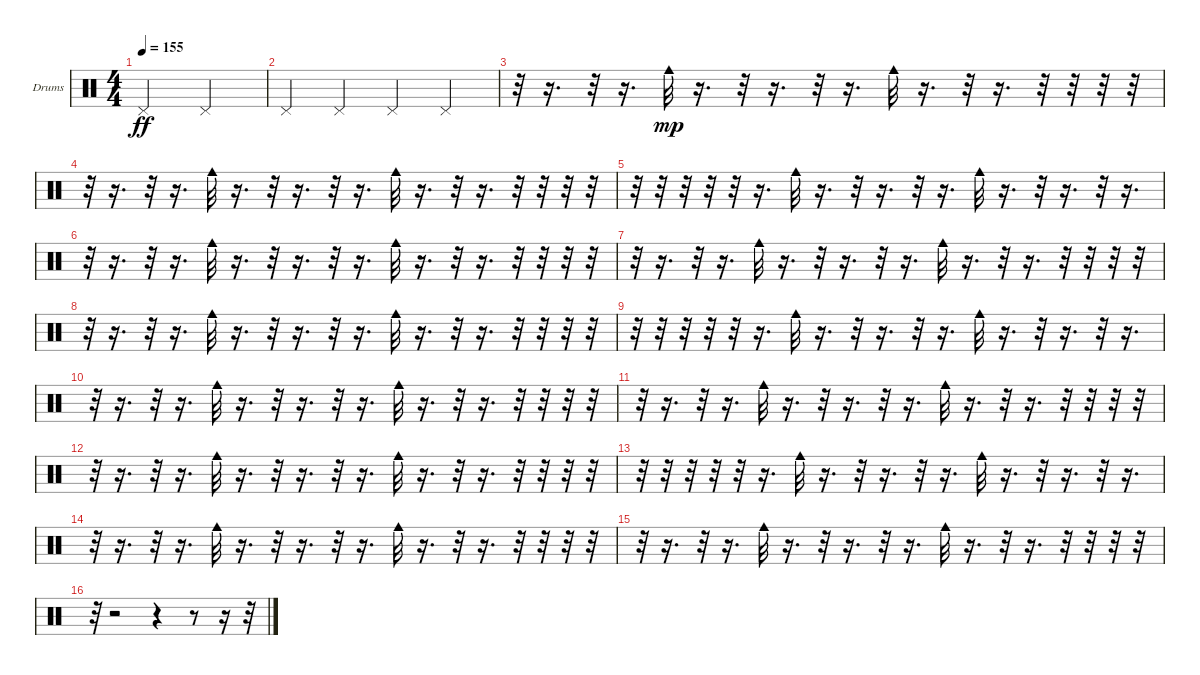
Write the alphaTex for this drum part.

\bracketExtendMode groupsimilarinstruments
\firstSystemTrackNameOrientation horizontal
\otherSystemsTrackNameOrientation horizontal
\track ("Е. Кулаков" "Drums") {instrument percussion}
\staff {score}
\articulation defaults
\ts (4 4)
\tempo 155
\clef neutral
\ks c "Pedal Hi-Hat (hit)".2{dy ff} "Pedal Hi-Hat (hit)".2
|
"Pedal Hi-Hat (hit)".4 "Pedal Hi-Hat (hit)".4 "Pedal Hi-Hat (hit)".4 "Pedal Hi-Hat (hit)".4 |
r.32 r.16{d} r.32 r.16{d} "Cowbell medium (hit)".32{dy mp} r.16{d} r.32 r.16{d} r.32 r.16{d} "Cowbell medium (hit)".32 r.16{d} r.32 r.16{d} r.32 r.32 r.32 r.32 |
r.32 r.16{d} r.32 r.16{d} "Cowbell medium (hit)".32 r.16{d} r.32 r.16{d} r.32 r.16{d} "Cowbell medium (hit)".32 r.16{d} r.32 r.16{d} r.32 r.32 r.32 r.32 |
r.32 r.32 r.32 r.32 r.32 r.16{d} "Cowbell medium (hit)".32 r.16{d} r.32 r.16{d} r.32 r.16{d} "Cowbell medium (hit)".32 r.16{d} r.32 r.16{d} r.32 r.16{d} |
r.32 r.16{d} r.32 r.16{d} "Cowbell medium (hit)".32 r.16{d} r.32 r.16{d} r.32 r.16{d} "Cowbell medium (hit)".32 r.16{d} r.32 r.16{d} r.32 r.32 r.32 r.32 |
r.32 r.16{d} r.32 r.16{d} "Cowbell medium (hit)".32 r.16{d} r.32 r.16{d} r.32 r.16{d} "Cowbell medium (hit)".32 r.16{d} r.32 r.16{d} r.32 r.32 r.32 r.32 |
r.32 r.16{d} r.32 r.16{d} "Cowbell medium (hit)".32 r.16{d} r.32 r.16{d} r.32 r.16{d} "Cowbell medium (hit)".32 r.16{d} r.32 r.16{d} r.32 r.32 r.32 r.32 |
r.32 r.32 r.32 r.32 r.32 r.16{d} "Cowbell medium (hit)".32 r.16{d} r.32 r.16{d} r.32 r.16{d} "Cowbell medium (hit)".32 r.16{d} r.32 r.16{d} r.32 r.16{d} |
r.32 r.16{d} r.32 r.16{d} "Cowbell medium (hit)".32 r.16{d} r.32 r.16{d} r.32 r.16{d} "Cowbell medium (hit)".32 r.16{d} r.32 r.16{d} r.32 r.32 r.32 r.32 |
r.32 r.16{d} r.32 r.16{d} "Cowbell medium (hit)".32 r.16{d} r.32 r.16{d} r.32 r.16{d} "Cowbell medium (hit)".32 r.16{d} r.32 r.16{d} r.32 r.32 r.32 r.32 |
r.32 r.16{d} r.32 r.16{d} "Cowbell medium (hit)".32 r.16{d} r.32 r.16{d} r.32 r.16{d} "Cowbell medium (hit)".32 r.16{d} r.32 r.16{d} r.32 r.32 r.32 r.32 |
r.32 r.32 r.32 r.32 r.32 r.16{d} "Cowbell medium (hit)".32 r.16{d} r.32 r.16{d} r.32 r.16{d} "Cowbell medium (hit)".32 r.16{d} r.32 r.16{d} r.32 r.16{d} |
r.32 r.16{d} r.32 r.16{d} "Cowbell medium (hit)".32 r.16{d} r.32 r.16{d} r.32 r.16{d} "Cowbell medium (hit)".32 r.16{d} r.32 r.16{d} r.32 r.32 r.32 r.32 |
r.32 r.16{d} r.32 r.16{d} "Cowbell medium (hit)".32 r.16{d} r.32 r.16{d} r.32 r.16{d} "Cowbell medium (hit)".32 r.16{d} r.32 r.16{d} r.32 r.32 r.32 r.32 |
r.32 r.2 r.4 r.8 r.16 r.32
